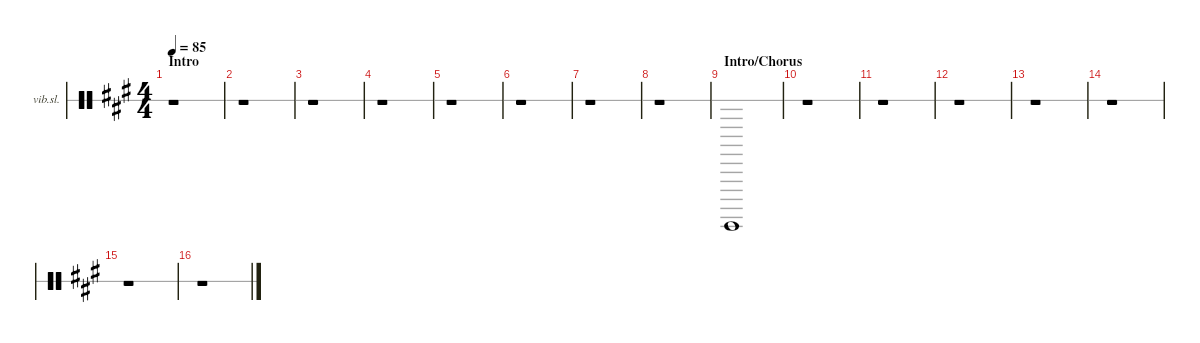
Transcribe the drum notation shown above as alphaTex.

\defaultSystemsLayout 4
\hideDynamics
\bracketExtendMode nobrackets
\firstSystemTrackNameOrientation horizontal
\otherSystemsTrackNameOrientation horizontal
\track ("Vibraslap" "vib.sl.") {instrument percussion}
\staff {score 1}
\articulation defaults
\ts (4 4)
\section ("" "Intro")
\tempo 85
\clef neutral
\ks a
r.1{dy mf} |
r.1 |
r.1 |
r.1 |
r.1 |
r.1 |
r.1 |
r.1 |
\section ("" "Intro/Chorus")
"Vibraslap (hit)"{acc forcenatural}.1 |
r.1 |
r.1 |
r.1 |
r.1 |
r.1 |
r.1 |
r.1
